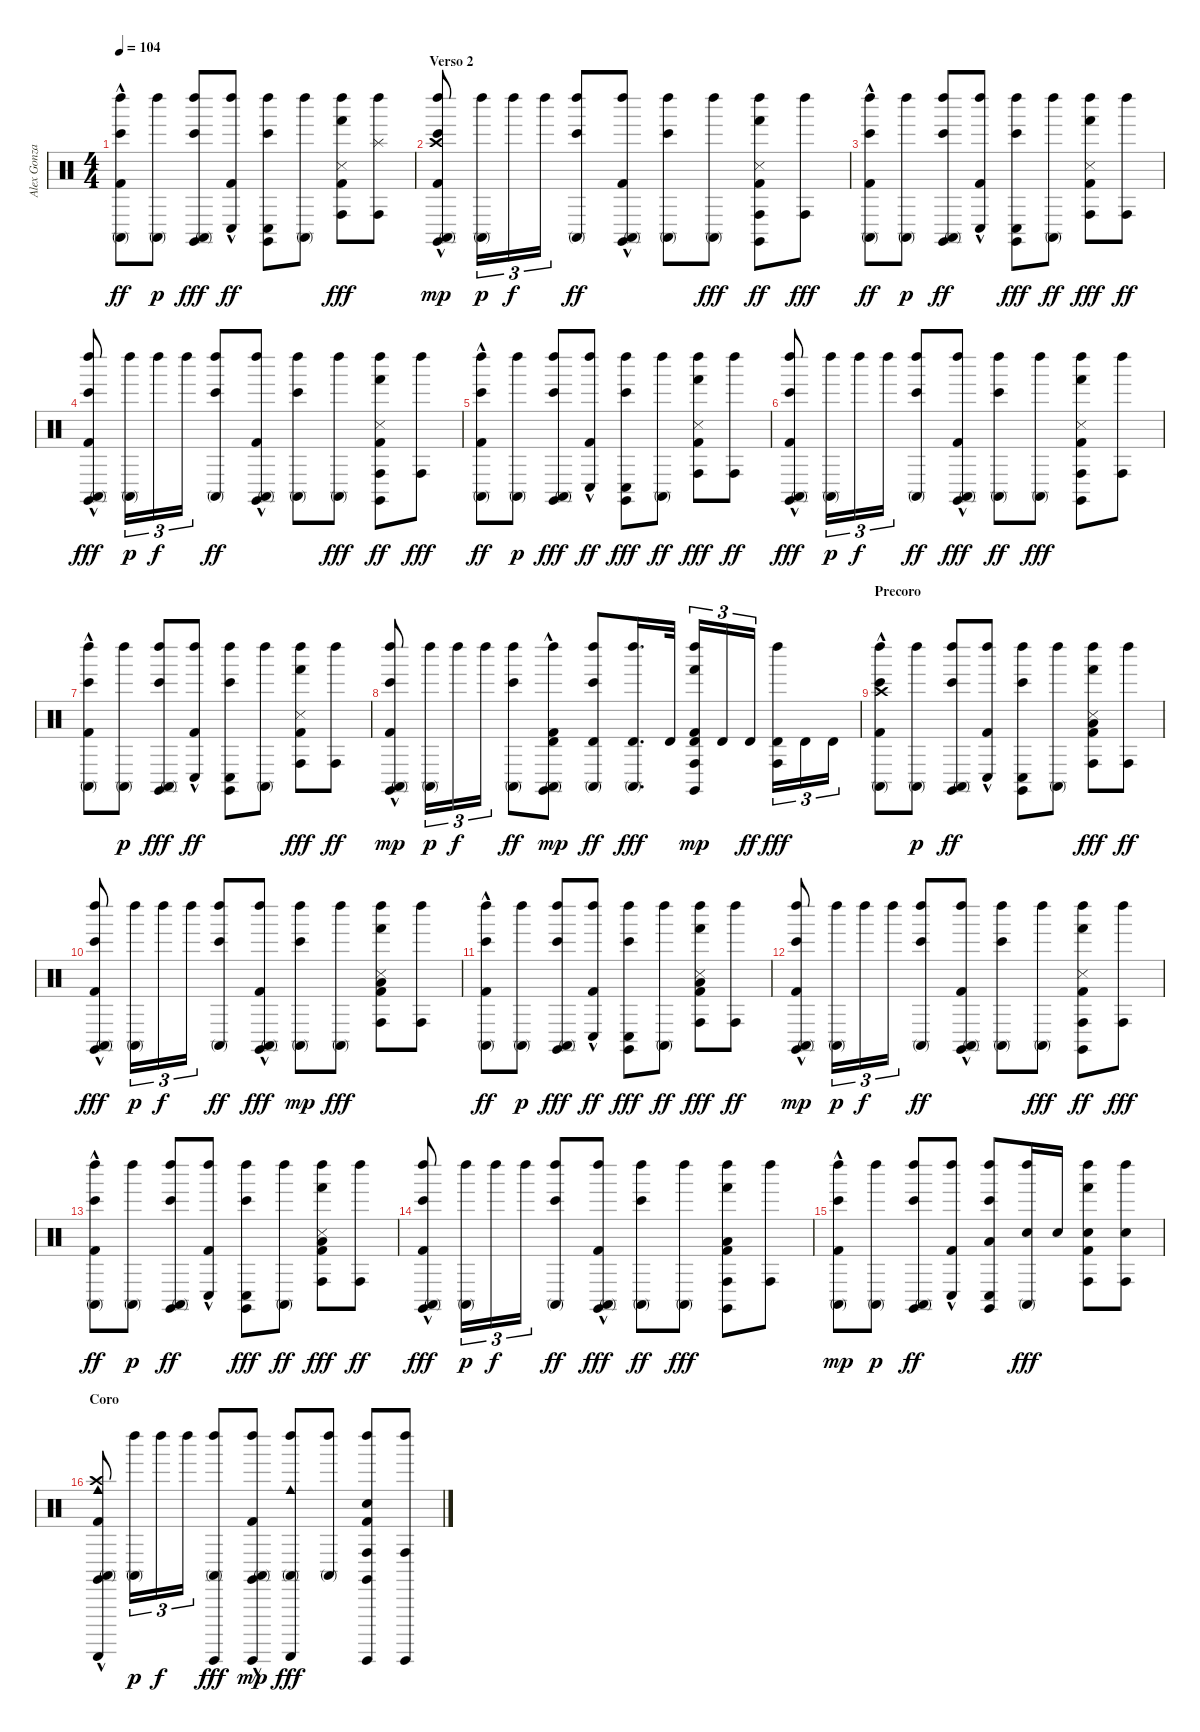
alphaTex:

\track ("Alex Gonzalez" "Alex Gonza") {instrument percussion}
\staff {score}
\articulation defaults
\ts (4 4)
\tempo 104
\clef neutral
\ks c
("Conga high (mute)" "Kick (hit) 2"{hac} "Bongo High (hit)" "Left Maraca (hit)").8{dy ff} ("Conga high (mute)" "Left Maraca (hit)").8{dy p} ("Claves (hit)" "Conga high (mute)" "Bongo High (hit)" "Left Maraca (hit)").8{dy fff} ("Left Maraca (hit)" "Conga low (hit)" "Kick (hit) 2"{hac}).8{dy ff} ("Claves (hit)" "Conga low (hit)" "Bongo High (hit)" "Left Maraca (hit)").8 ("Conga high (mute)" "Left Maraca (hit)").8 ("Conga high (hit)" "Kick (hit) 2" "Left Maraca (hit)" "Snare (side stick) 3" "Hand (hit)").8{dy fff} ("Left Maraca (hit)" "Splash (hit)" "Conga high (hit)").8 |
\section ("" "Verso 2")
("Claves (hit)"{hac} "Crash high (hit)" "Left Maraca (hit)" "Kick (hit) 2"{hac} "Conga high (mute)" "Bongo High (hit)").8{dy mp} ("Conga high (mute)" "Left Maraca (hit)").16{tu (3 2) dy p} "Left Maraca (hit)".16{tu (3 2) dy f} "Left Maraca (hit)".16{tu (3 2)} ("Conga high (mute)" "Bongo High (hit)" "Left Maraca (hit)").8{dy ff} ("Claves (hit)"{hac} "Conga high (mute)" "Kick (hit) 2"{hac} "Left Maraca (hit)").8 ("Conga high (mute)" "Bongo High (hit)" "Left Maraca (hit)").8 ("Conga high (mute)" "Left Maraca (hit)").8{dy fff} ("Kick (hit) 2" "Claves (hit)" "Conga high (hit)" "Snare (side stick) 3" "Hand (hit)" "Left Maraca (hit)").8{dy ff} ("Conga high (hit)" "Left Maraca (hit)").8{dy fff} |
("Conga high (mute)" "Kick (hit) 2"{hac} "Bongo High (hit)" "Left Maraca (hit)").8{dy ff} ("Conga high (mute)" "Left Maraca (hit)").8{dy p} ("Left Maraca (hit)" "Conga high (mute)" "Claves (hit)" "Bongo High (hit)").8{dy ff} ("Kick (hit) 2"{hac} "Left Maraca (hit)" "Conga low (hit)").8 ("Claves (hit)" "Left Maraca (hit)" "Conga low (hit)" "Bongo High (hit)").8{dy fff} ("Conga high (mute)" "Left Maraca (hit)").8{dy ff} ("Conga high (hit)" "Kick (hit) 2" "Snare (side stick) 3" "Hand (hit)" "Left Maraca (hit)").8{dy fff} ("Conga high (hit)" "Left Maraca (hit)").8{dy ff} |
("Kick (hit) 2"{hac} "Bongo High (hit)" "Conga high (mute)" "Claves (hit)"{hac} "Left Maraca (hit)").8{dy fff} ("Conga high (mute)" "Left Maraca (hit)").16{tu (3 2) dy p} "Left Maraca (hit)".16{tu (3 2) dy f} "Left Maraca (hit)".16{tu (3 2)} ("Conga high (mute)" "Bongo High (hit)" "Left Maraca (hit)").8{dy ff} ("Claves (hit)"{hac} "Conga high (mute)" "Kick (hit) 2"{hac} "Left Maraca (hit)").8 ("Conga high (mute)" "Bongo High (hit)" "Left Maraca (hit)").8 ("Conga high (mute)" "Left Maraca (hit)").8{dy fff} ("Claves (hit)" "Conga high (hit)" "Kick (hit) 2" "Snare (side stick) 3" "Hand (hit)" "Left Maraca (hit)").8{dy ff} ("Conga high (hit)" "Left Maraca (hit)").8{dy fff} |
("Conga high (mute)" "Kick (hit) 2"{hac} "Bongo High (hit)" "Left Maraca (hit)").8{dy ff} ("Conga high (mute)" "Left Maraca (hit)").8{dy p} ("Left Maraca (hit)" "Claves (hit)" "Bongo High (hit)" "Conga high (mute)").8{dy fff} ("Conga low (hit)" "Kick (hit) 2"{hac} "Left Maraca (hit)").8{dy ff} ("Conga low (hit)" "Claves (hit)" "Left Maraca (hit)" "Bongo High (hit)").8{dy fff} ("Conga high (mute)" "Left Maraca (hit)").8{dy ff} ("Conga high (hit)" "Kick (hit) 2" "Snare (side stick) 3" "Hand (hit)" "Left Maraca (hit)").8{dy fff} ("Conga high (hit)" "Left Maraca (hit)").8{dy ff} |
("Conga high (mute)" "Claves (hit)"{hac} "Kick (hit) 2"{hac} "Bongo High (hit)" "Left Maraca (hit)").8{dy fff} ("Conga high (mute)" "Left Maraca (hit)").16{tu (3 2) dy p} "Left Maraca (hit)".16{tu (3 2) dy f} "Left Maraca (hit)".16{tu (3 2)} ("Conga high (mute)" "Bongo High (hit)" "Left Maraca (hit)").8{dy ff} ("Conga high (mute)" "Claves (hit)"{hac} "Left Maraca (hit)" "Kick (hit) 2"{hac}).8{dy fff} ("Conga high (mute)" "Bongo High (hit)" "Left Maraca (hit)").8{dy ff} ("Conga high (mute)" "Left Maraca (hit)").8{dy fff} ("Left Maraca (hit)" "Claves (hit)" "Kick (hit) 2" "Conga high (hit)" "Snare (side stick) 3" "Hand (hit)").8 ("Conga high (hit)" "Left Maraca (hit)").8 |
("Kick (hit) 2"{hac} "Conga high (mute)" "Left Maraca (hit)" "Bongo High (hit)").8 ("Conga high (mute)" "Left Maraca (hit)").8{dy p} ("Claves (hit)" "Conga high (mute)" "Bongo High (hit)" "Left Maraca (hit)").8{dy fff} ("Left Maraca (hit)" "Conga low (hit)" "Kick (hit) 2"{hac}).8{dy ff} ("Claves (hit)" "Conga low (hit)" "Bongo High (hit)" "Left Maraca (hit)").8 ("Conga high (mute)" "Left Maraca (hit)").8 ("Kick (hit) 2" "Conga high (hit)" "Snare (side stick) 3" "Left Maraca (hit)" "Hand (hit)").8{dy fff} ("Conga high (hit)" "Left Maraca (hit)").8{dy ff} |
("Claves (hit)"{hac} "Kick (hit) 2"{hac} "Bongo High (hit)" "Left Maraca (hit)" "Conga high (mute)").8{dy mp} ("Conga high (mute)" "Left Maraca (hit)").16{tu (3 2) dy p} "Left Maraca (hit)".16{tu (3 2) dy f} "Left Maraca (hit)".16{tu (3 2)} ("Conga high (mute)" "Bongo High (hit)" "Left Maraca (hit)").8{dy ff} ("Claves (hit)"{hac} "Left Maraca (hit)" "Kick (hit) 2"{hac} "Timbale high (hit)" "Conga high (mute)").8{dy mp} ("Timbale high (hit)" "Left Maraca (hit)" "Conga high (mute)" "Bongo High (hit)").8{dy ff} ("Timbale high (hit)" "Conga high (mute)" "Left Maraca (hit)").16{d dy fff} "Timbale high (hit)".32 ("Conga high (hit)" "Hand (hit)" "Left Maraca (hit)" "Kick (hit) 2" "Timbale high (hit)" "Claves (hit)").16{tu (3 2) dy mp} "Timbale high (hit)".16{tu (3 2)} "Timbale high (hit)".16{tu (3 2) dy ff} ("Timbale high (hit)" "Conga high (hit)" "Left Maraca (hit)").16{tu (3 2) dy fff} "Timbale high (hit)".16{tu (3 2)} "Timbale high (hit)".16{tu (3 2)} |
\section ("" "Precoro")
("Left Maraca (hit)" "Conga high (mute)" "Kick (hit) 2"{hac} "Crash high (hit)" "Bongo High (hit)").8 ("Conga high (mute)" "Left Maraca (hit)").8{dy p} ("Conga high (mute)" "Claves (hit)" "Left Maraca (hit)" "Bongo High (hit)").8{dy ff} ("Left Maraca (hit)" "Conga low (hit)" "Kick (hit) 2"{hac}).8 ("Claves (hit)" "Bongo High (hit)" "Left Maraca (hit)" "Conga low (hit)").8 ("Conga high (mute)" "Left Maraca (hit)").8 ("Kick (hit) 2" "Low Tom (hit)" "Left Maraca (hit)" "Hand (hit)" "Conga high (hit)" "Snare (side stick) 3").8{dy fff} ("Conga high (hit)" "Left Maraca (hit)").8{dy ff} |
("Conga high (mute)" "Bongo High (hit)" "Left Maraca (hit)" "Claves (hit)"{hac} "Kick (hit) 2"{hac}).8{dy fff} ("Conga high (mute)" "Left Maraca (hit)").16{tu (3 2) dy p} "Left Maraca (hit)".16{tu (3 2) dy f} "Left Maraca (hit)".16{tu (3 2)} ("Conga high (mute)" "Bongo High (hit)" "Left Maraca (hit)").8{dy ff} ("Conga high (mute)" "Claves (hit)" "Left Maraca (hit)" "Kick (hit) 2"{hac}).8{dy fff} ("Bongo High (hit)" "Left Maraca (hit)" "Conga high (mute)").8{dy mp} ("Conga high (mute)" "Left Maraca (hit)").8{dy fff} ("Conga high (hit)" "Snare (side stick) 3" "Left Maraca (hit)" "Hand (hit)" "Kick (hit) 2" "Low Tom (hit)").8 ("Conga high (hit)" "Left Maraca (hit)").8 |
("Conga high (mute)" "Kick (hit) 2"{hac} "Bongo High (hit)" "Left Maraca (hit)").8{dy ff} ("Conga high (mute)" "Left Maraca (hit)").8{dy p} ("Claves (hit)" "Conga high (mute)" "Bongo High (hit)" "Left Maraca (hit)").8{dy fff} ("Left Maraca (hit)" "Conga low (hit)" "Kick (hit) 2"{hac}).8{dy ff} ("Left Maraca (hit)" "Conga low (hit)" "Claves (hit)" "Bongo High (hit)").8{dy fff} ("Conga high (mute)" "Left Maraca (hit)").8{dy ff} ("Hand (hit)" "Conga high (hit)" "Left Maraca (hit)" "Kick (hit) 2" "Low Tom (hit)" "Snare (side stick) 3").8{dy fff} ("Conga high (hit)" "Left Maraca (hit)").8{dy ff} |
("Kick (hit) 2"{hac} "Claves (hit)"{hac} "Left Maraca (hit)" "Bongo High (hit)" "Conga high (mute)").8{dy mp} ("Conga high (mute)" "Left Maraca (hit)").16{tu (3 2) dy p} "Left Maraca (hit)".16{tu (3 2) dy f} "Left Maraca (hit)".16{tu (3 2)} ("Conga high (mute)" "Bongo High (hit)" "Left Maraca (hit)").8{dy ff} ("Claves (hit)"{hac} "Conga high (mute)" "Kick (hit) 2"{hac} "Left Maraca (hit)").8 ("Conga high (mute)" "Bongo High (hit)" "Left Maraca (hit)").8 ("Conga high (mute)" "Left Maraca (hit)").8{dy fff} ("Conga high (hit)" "Snare (side stick) 3" "Kick (hit) 2" "Claves (hit)" "Hand (hit)" "Left Maraca (hit)").8{dy ff} ("Conga high (hit)" "Left Maraca (hit)").8{dy fff} |
("Conga high (mute)" "Kick (hit) 2"{hac} "Bongo High (hit)" "Left Maraca (hit)").8{dy ff} ("Conga high (mute)" "Left Maraca (hit)").8{dy p} ("Conga high (mute)" "Claves (hit)" "Left Maraca (hit)" "Bongo High (hit)").8{dy ff} ("Conga low (hit)" "Kick (hit) 2"{hac} "Left Maraca (hit)").8 ("Conga low (hit)" "Claves (hit)" "Left Maraca (hit)" "Bongo High (hit)").8{dy fff} ("Conga high (mute)" "Left Maraca (hit)").8{dy ff} ("Left Maraca (hit)" "Conga high (hit)" "Snare (side stick) 3" "Hand (hit)" "Kick (hit) 2" "Low Tom (hit)").8{dy fff} ("Conga high (hit)" "Left Maraca (hit)").8{dy ff} |
("Conga high (mute)" "Bongo High (hit)" "Left Maraca (hit)" "Claves (hit)"{hac} "Kick (hit) 2"{hac}).8{dy fff} ("Conga high (mute)" "Left Maraca (hit)").16{tu (3 2) dy p} "Left Maraca (hit)".16{tu (3 2) dy f} "Left Maraca (hit)".16{tu (3 2)} ("Conga high (mute)" "Bongo High (hit)" "Left Maraca (hit)").8{dy ff} ("Conga high (mute)" "Claves (hit)"{hac} "Left Maraca (hit)" "Kick (hit) 2"{hac}).8{dy fff} ("Conga high (mute)" "Bongo High (hit)" "Left Maraca (hit)").8{dy ff} ("Conga high (mute)" "Left Maraca (hit)").8{dy fff} ("Kick (hit) 2" "Conga high (hit)" "Left Maraca (hit)" "Claves (hit)" "Hand (hit)" "Low Tom (hit)").8 ("Conga high (hit)" "Left Maraca (hit)").8 |
("Bongo High (hit)" "Kick (hit) 2"{hac} "Left Maraca (hit)" "Conga high (mute)").8{dy mp} ("Conga high (mute)" "Left Maraca (hit)").8{dy p} ("Conga high (mute)" "Claves (hit)" "Left Maraca (hit)" "Bongo High (hit)").8{dy ff} ("Conga low (hit)" "Kick (hit) 2"{hac} "Left Maraca (hit)").8 ("Low Tom (hit)" "Claves (hit)" "Bongo High (hit)" "Left Maraca (hit)" "Conga low (hit)").8 ("Conga high (mute)" "Left Maraca (hit)" "Electric Snare (hit)").16{dy fff} "Electric Snare (hit)".16 ("Conga high (hit)" "Kick (hit) 2" "Hand (hit)" "Left Maraca (hit)" "Electric Snare (hit)").8 ("Conga high (hit)" "Left Maraca (hit)" "Electric Snare (hit)").8 |
\section ("" "Coro")
("Conga high (mute)" "Claves (hit)"{hac} "Cowbell medium (hit)" "Guiro (scrap-return)" "Crash high (hit)" "Kick (hit) 2"{hac}).8 ("Conga high (mute)" "Left Maraca (hit)").16{tu (3 2) dy p} "Left Maraca (hit)".16{tu (3 2) dy f} "Left Maraca (hit)".16{tu (3 2)} ("Conga high (mute)" "Left Maraca (hit)" "Guiro (hit)").8{dy fff} ("Guiro (hit)" "Kick (hit) 2"{hac} "Left Maraca (hit)" "Claves (hit)"{hac} "Conga high (mute)").8{dy mp} ("Conga high (mute)" "Left Maraca (hit)" "Cowbell medium (hit)" "Guiro (scrap-return)").8{dy fff} ("Conga high (mute)" "Left Maraca (hit)").8 ("Claves (hit)" "Kick (hit) 2" "Left Maraca (hit)" "Guiro (hit)" "Conga high (hit)" "Electric Snare (hit)").8 ("Conga high (hit)" "Left Maraca (hit)" "Guiro (hit)").8
